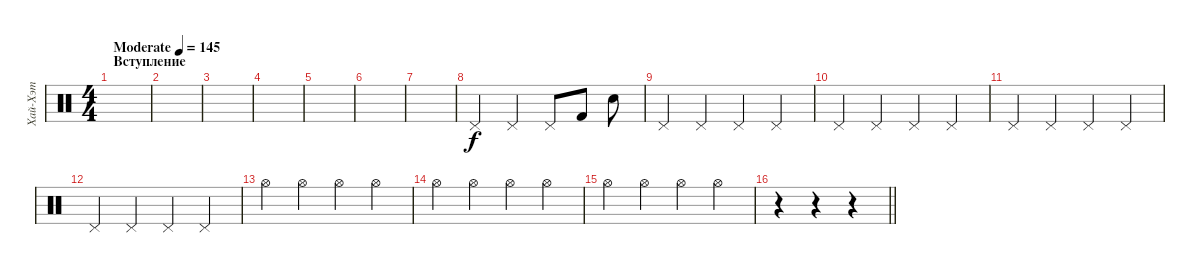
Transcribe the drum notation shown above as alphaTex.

\track ("Хай-Хэт" "Хай-Хэт") {instrument percussion}
\staff {score}
\articulation defaults
\ts (4 4)
\section ("" "Вступление")
\tempo (145 "Moderate")
\clef neutral
\ks c
|
|
|
|
|
|
|
"Pedal Hi-Hat (hit)".4 "Pedal Hi-Hat (hit)".4 "Pedal Hi-Hat (hit)".8 "Kick (hit) 2".8 "Snare (hit) 2".8 |
"Pedal Hi-Hat (hit)".4 "Pedal Hi-Hat (hit)".4 "Pedal Hi-Hat (hit)".4 "Pedal Hi-Hat (hit)".4 |
"Pedal Hi-Hat (hit)".4 "Pedal Hi-Hat (hit)".4 "Pedal Hi-Hat (hit)".4 "Pedal Hi-Hat (hit)".4 |
"Pedal Hi-Hat (hit)".4 "Pedal Hi-Hat (hit)".4 "Pedal Hi-Hat (hit)".4 "Pedal Hi-Hat (hit)".4 |
"Pedal Hi-Hat (hit)".4 "Pedal Hi-Hat (hit)".4 "Pedal Hi-Hat (hit)".4 "Pedal Hi-Hat (hit)".4 |
"Hi-Hat (open)".4 "Hi-Hat (open)".4 "Hi-Hat (open)".4 "Hi-Hat (open)".4 |
"Hi-Hat (open)".4 "Hi-Hat (open)".4 "Hi-Hat (open)".4 "Hi-Hat (open)".4 |
"Hi-Hat (open)".4 "Hi-Hat (open)".4 "Hi-Hat (open)".4 "Hi-Hat (open)".4 |
\barLineRight lightlight
r.4 r.4 r.4
